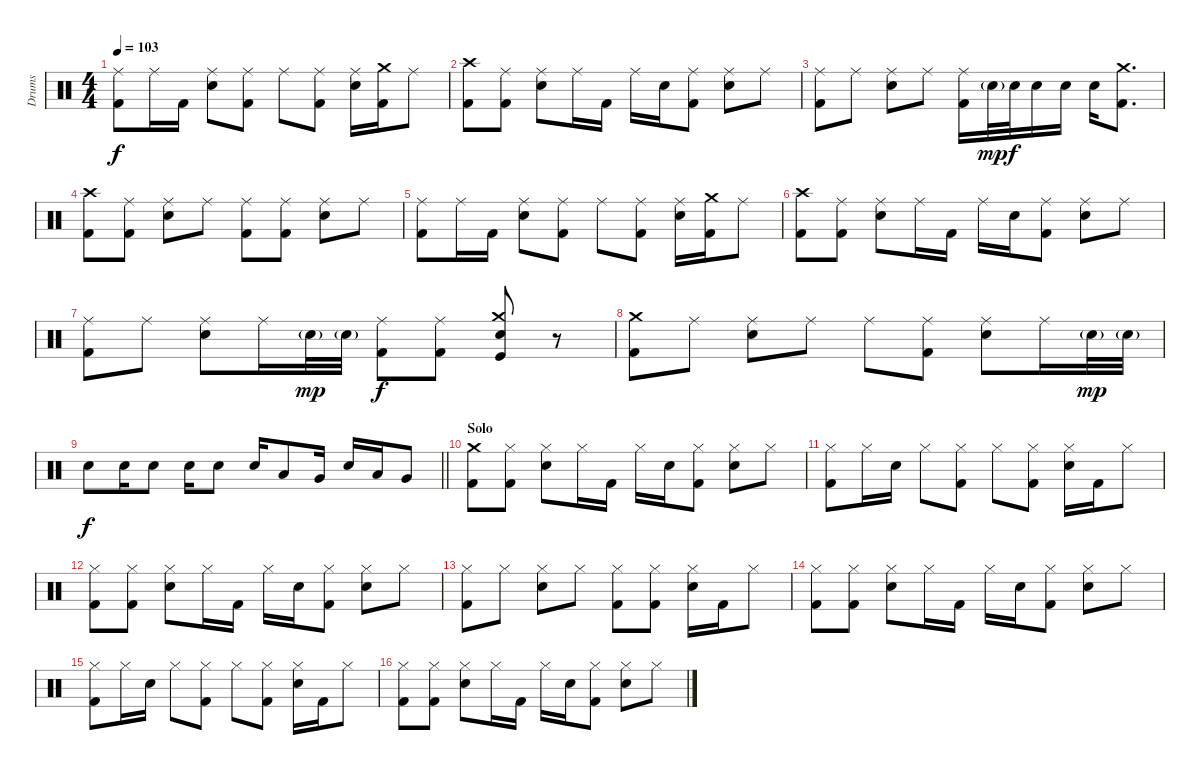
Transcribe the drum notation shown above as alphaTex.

\track ("Drums" "Drums") {instrument percussion}
\staff {score}
\articulation defaults
\ts (4 4)
\tempo 103
\clef neutral
\ks c
("Ride (middle)" "Kick (hit) 2").8{dy f} "Ride (middle)".16 "Kick (hit) 2".16 ("Ride (middle)" "Electric Snare (hit)").8 ("Ride (middle)" "Kick (hit) 2").8 "Ride (middle)".8 ("Ride (middle)" "Kick (hit) 2").8 ("Ride (middle)" "Electric Snare (hit)").16 ("Crash medium (hit)" "Kick (hit) 2").16 "Ride (middle)".8 |
("Crash high (hit)" "Kick (hit) 2").8 ("Ride (middle)" "Kick (hit) 2").8 ("Ride (middle)" "Electric Snare (hit)").8 "Ride (middle)".16 "Kick (hit) 2".16 "Ride (middle)".16 "Electric Snare (hit)".16 ("Ride (middle)" "Kick (hit) 2").8 ("Ride (middle)" "Electric Snare (hit)").8 "Ride (middle)".8 |
("Ride (middle)" "Kick (hit) 2").8 "Ride (middle)".8 ("Ride (middle)" "Electric Snare (hit)").8 "Ride (middle)".8 ("Ride (middle)" "Kick (hit) 2").16 "Electric Snare (hit)"{g}.32{dy mp} "Electric Snare (hit)".32{dy f} "Electric Snare (hit)".16 "Electric Snare (hit)".16 "Electric Snare (hit)".16 ("Crash medium (hit)" "Kick (hit) 2").8{d} |
("Crash high (hit)" "Kick (hit) 2").8 ("Ride (middle)" "Kick (hit) 2").8 ("Ride (middle)" "Electric Snare (hit)").8 "Ride (middle)".8 ("Ride (middle)" "Kick (hit) 2").8 ("Ride (middle)" "Kick (hit) 2").8 ("Ride (middle)" "Electric Snare (hit)").8 "Ride (middle)".8 |
("Ride (middle)" "Kick (hit) 2").8 "Ride (middle)".16 "Kick (hit) 2".16 ("Ride (middle)" "Electric Snare (hit)").8 ("Ride (middle)" "Kick (hit) 2").8 "Ride (middle)".8 ("Ride (middle)" "Kick (hit) 2").8 ("Ride (middle)" "Electric Snare (hit)").16 ("Crash medium (hit)" "Kick (hit) 2").16 "Ride (middle)".8 |
("Crash high (hit)" "Kick (hit) 2").8 ("Ride (middle)" "Kick (hit) 2").8 ("Ride (middle)" "Electric Snare (hit)").8 "Ride (middle)".16 "Kick (hit) 2".16 "Ride (middle)".16 "Electric Snare (hit)".16 ("Ride (middle)" "Kick (hit) 2").8 ("Ride (middle)" "Electric Snare (hit)").8 "Ride (middle)".8 |
("Ride (middle)" "Kick (hit) 2").8 "Ride (middle)".8 ("Ride (middle)" "Electric Snare (hit)").8 "Ride (middle)".16 "Electric Snare (hit)"{g}.32{dy mp} "Electric Snare (hit)"{g}.32 ("Ride (middle)" "Kick (hit) 2").8{dy f} ("Ride (middle)" "Kick (hit) 2").8 ("Crash medium (hit)" "Electric Snare (hit)" "Kick (hit)").8 r.8 |
("Crash medium (hit)" "Kick (hit) 2").8 "Ride (middle)".8 ("Ride (middle)" "Electric Snare (hit)").8 "Ride (middle)".8 "Ride (middle)".8 ("Ride (middle)" "Kick (hit) 2").8 ("Ride (middle)" "Electric Snare (hit)").8 "Ride (middle)".16 "Electric Snare (hit)"{g}.32{dy mp} "Electric Snare (hit)"{g}.32 |
\barLineRight lightlight "Electric Snare (hit)".8{dy f} "Electric Snare (hit)".16 "Electric Snare (hit)".8 "Electric Snare (hit)".16 "Electric Snare (hit)".8 "Electric Snare (hit)".16 "Low Tom (hit)".8 "Very Low Tom (hit)".16 "Electric Snare (hit)".16 "Low Tom (hit)".16 "Very Low Tom (hit)".8
|
\section ("" "Solo")
("Crash medium (hit)" "Kick (hit) 2").8 ("Hi-Hat (closed)" "Kick (hit) 2").8 ("Hi-Hat (closed)" "Electric Snare (hit)").8 "Hi-Hat (closed)".16 "Kick (hit) 2".16 "Hi-Hat (closed)".16 "Electric Snare (hit)".16 ("Hi-Hat (closed)" "Kick (hit) 2").8 ("Hi-Hat (closed)" "Electric Snare (hit)").8 "Hi-Hat (closed)".8 |
("Hi-Hat (closed)" "Kick (hit) 2").8 "Hi-Hat (closed)".16 "Electric Snare (hit)".16 "Hi-Hat (closed)".8 ("Hi-Hat (closed)" "Kick (hit) 2").8 "Hi-Hat (closed)".8 ("Hi-Hat (closed)" "Kick (hit) 2").8 ("Hi-Hat (closed)" "Electric Snare (hit)").16 "Kick (hit) 2".16 "Hi-Hat (closed)".8 |
("Hi-Hat (closed)" "Kick (hit) 2").8 ("Hi-Hat (closed)" "Kick (hit) 2").8 ("Hi-Hat (closed)" "Electric Snare (hit)").8 "Hi-Hat (closed)".16 "Kick (hit) 2".16 "Hi-Hat (closed)".16 "Electric Snare (hit)".16 ("Hi-Hat (closed)" "Kick (hit) 2").8 ("Hi-Hat (closed)" "Electric Snare (hit)").8 "Hi-Hat (closed)".8 |
("Hi-Hat (closed)" "Kick (hit) 2").8 "Hi-Hat (closed)".8 ("Hi-Hat (closed)" "Electric Snare (hit)").8 "Hi-Hat (closed)".8 ("Hi-Hat (closed)" "Kick (hit) 2").8 ("Hi-Hat (closed)" "Kick (hit) 2").8 ("Hi-Hat (closed)" "Electric Snare (hit)").16 "Kick (hit) 2".16 "Hi-Hat (closed)".8 |
("Hi-Hat (closed)" "Kick (hit) 2").8 ("Hi-Hat (closed)" "Kick (hit) 2").8 ("Hi-Hat (closed)" "Electric Snare (hit)").8 "Hi-Hat (closed)".16 "Kick (hit) 2".16 "Hi-Hat (closed)".16 "Electric Snare (hit)".16 ("Hi-Hat (closed)" "Kick (hit) 2").8 ("Hi-Hat (closed)" "Electric Snare (hit)").8 "Hi-Hat (closed)".8 |
("Hi-Hat (closed)" "Kick (hit) 2").8 "Hi-Hat (closed)".16 "Electric Snare (hit)".16 "Hi-Hat (closed)".8 ("Hi-Hat (closed)" "Kick (hit) 2").8 "Hi-Hat (closed)".8 ("Hi-Hat (closed)" "Kick (hit) 2").8 ("Hi-Hat (closed)" "Electric Snare (hit)").16 "Kick (hit) 2".16 "Hi-Hat (closed)".8 |
("Hi-Hat (closed)" "Kick (hit) 2").8 ("Hi-Hat (closed)" "Kick (hit) 2").8 ("Hi-Hat (closed)" "Electric Snare (hit)").8 "Hi-Hat (closed)".16 "Kick (hit) 2".16 "Hi-Hat (closed)".16 "Electric Snare (hit)".16 ("Hi-Hat (closed)" "Kick (hit) 2").8 ("Hi-Hat (closed)" "Electric Snare (hit)").8 "Hi-Hat (closed)".8
